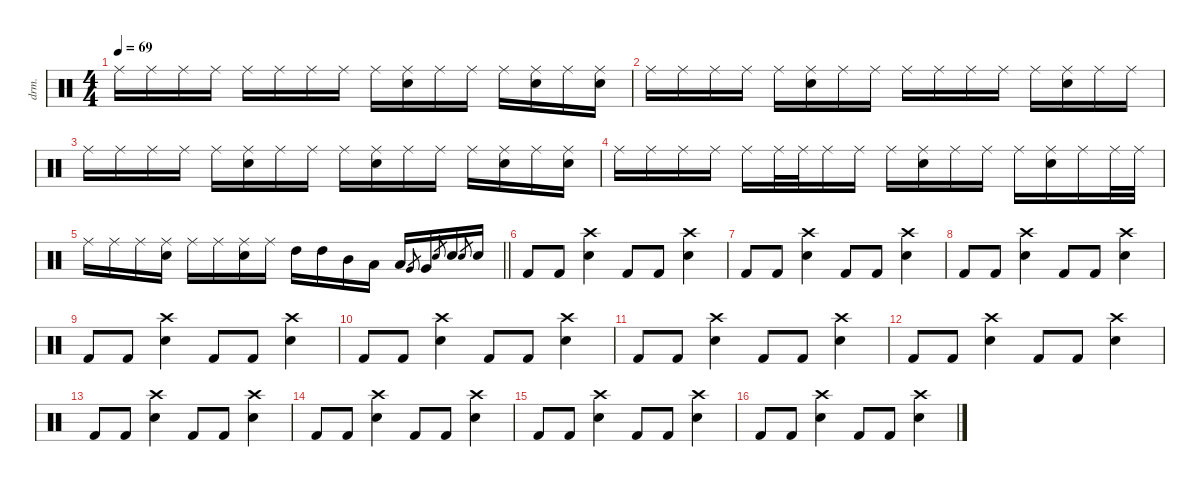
\defaultSystemsLayout 4
\hideDynamics
\bracketExtendMode groupsimilarinstruments
\otherSystemsTrackNameOrientation horizontal
\track ("Drums" "drm.") {defaultSystemsLayout 4 instrument percussion}
\staff {score}
\articulation defaults
\ts (4 4)
\tempo 69
\clef neutral
\ks c "Ride (middle)".16{dy ff beam Down} "Ride (middle)".16{dy mp beam Down} "Ride (middle)".16{dy mf beam Down} "Ride (middle)".16{dy ff beam Down} "Ride (middle)".16{dy mp beam Down} "Ride (middle)".16{beam Down} "Ride (middle)".16{dy f beam Down} "Ride (middle)".16{dy mp beam Down} "Ride (middle)".16{dy f beam Down}
("Snare (hit) 2" "Ride (middle)").16{dy mf beam Down} "Ride (middle)".16{dy mp beam Down} "Ride (middle)".16{dy mf beam Down} "Ride (middle)".16{dy f beam Down} ("Snare (hit) 2" "Ride (middle)").16{dy mf beam Down} "Ride (middle)".16{dy ff beam Down} ("Snare (hit) 2" "Ride (middle)").16{dy mf beam Down} |
"Ride (middle)".16{dy f beam Down} "Ride (middle)".16{dy mp beam Down} "Ride (middle)".16{beam Down} "Ride (middle)".16{dy f beam Down} "Ride (middle)".16{dy mp beam Down} ("Snare (hit) 2" "Ride (middle)").16{dy f beam Down} "Ride (middle)".16{dy ff beam Down} "Ride (middle)".16{dy mf beam Down} "Ride (middle)".16{beam Down} "Ride (middle)".16{dy f beam Down} "Ride (middle)".16{dy mp beam Down} "Ride (middle)".16{dy f beam Down} "Ride (middle)".16{beam Down} ("Snare (hit) 2" "Ride (middle)").16{beam Down} "Ride (middle)".16{beam Down} "Ride (middle)".16{beam Down} |
"Ride (middle)".16{beam Down} "Ride (middle)".16{beam Down} "Ride (middle)".16{beam Down} "Ride (middle)".16{beam Down} "Ride (middle)".16{beam Down} ("Snare (hit) 2" "Ride (middle)").16{dy mf beam Down} "Ride (middle)".16{dy f beam Down} "Ride (middle)".16{beam Down} "Ride (middle)".16{beam Down} ("Snare (hit) 2" "Ride (middle)").16{beam Down} "Ride (middle)".16{dy mf beam Down} "Ride (middle)".16{dy ff beam Down} "Ride (middle)".16{dy mf beam Down} ("Snare (hit) 2" "Ride (middle)").16{beam Down} "Ride (middle)".16{dy ff beam Down} ("Snare (hit) 2" "Ride (middle)").16{dy mf beam Down} |
"Ride (middle)".16{beam Down} "Ride (middle)".16{dy f beam Down} "Ride (middle)".16{beam Down} "Ride (middle)".16{beam Down} "Ride (middle)".16{beam Down} "Ride (middle)".32{beam Down} "Ride (middle)".32{dy ff beam Down} "Ride (middle)".16{dy mp beam Down} "Ride (middle)".16{beam Down} "Ride (middle)".16{dy f beam Down} ("Snare (hit) 2" "Ride (middle)").16{beam Down} "Ride (middle)".16{beam Down} "Ride (middle)".16{dy ff beam Down} "Ride (middle)".16{dy f beam Down} ("Snare (hit) 2" "Ride (middle)").16{beam Down} "Ride (middle)".16{beam Down} "Ride (middle)".32{dy ff beam Down} "Ride (middle)".32{dy f beam Down} |
\barLineRight lightlight "Ride (middle)".16{dy mf beam Down} "Ride (middle)".16{dy f beam Down} "Ride (middle)".16{beam Down}
("Snare (hit) 2" "Ride (middle)").16{beam Down} "Ride (middle)".16{beam Down} "Ride (middle)".16{beam Down} ("Snare (hit) 2" "Ride (middle)").16{dy ff beam Down} "Ride (middle)".16{beam Down} "High Tom (hit)".16{beam Down} "High Tom (hit)".16{beam Down} "Mid Tom (hit)".16{dy fff beam Down} "Low Tom (hit)".16{dy ff beam Down} "Low Tom (hit)".16{beam Up} "Very Low Tom (hit)".8{gr dy f beam Up} "Very Low Tom (hit)".16{dy ff beam Up} "Electric Snare (hit)".8{gr dy mp beam Up} "Snare (hit) 2".16{dy ff beam Up} "Electric Snare (hit)".8{gr dy mp beam Up} "Snare (hit) 2".16{dy ff beam Up} |
"Kick (hit) 2".8{dy fff beam Up} "Kick (hit) 2".8{beam Up} ("Snare (hit) 2" "Crash high (hit)").4{beam Down} "Kick (hit) 2".8{dy f beam Up} "Kick (hit) 2".8{dy fff beam Up} ("Snare (hit) 2" "Crash high (hit)").4{beam Down} |
"Kick (hit) 2".8{beam Up} "Kick (hit) 2".8{beam Up} ("Snare (hit) 2" "Crash high (hit)").4{beam Down} "Kick (hit) 2".8{dy f beam Up} "Kick (hit) 2".8{dy fff beam Up} ("Snare (hit) 2" "Crash high (hit)").4{beam Down} |
"Kick (hit) 2".8{beam Up} "Kick (hit) 2".8{beam Up} ("Snare (hit) 2" "Crash high (hit)").4{beam Down} "Kick (hit) 2".8{dy f beam Up} "Kick (hit) 2".8{dy fff beam Up} ("Snare (hit) 2" "Crash high (hit)").4{beam Down} |
"Kick (hit) 2".8{beam Up} "Kick (hit) 2".8{beam Up} ("Snare (hit) 2" "Crash high (hit)").4{beam Down} "Kick (hit) 2".8{dy f beam Up} "Kick (hit) 2".8{dy fff beam Up} ("Snare (hit) 2" "Crash high (hit)").4{beam Down} |
"Kick (hit) 2".8{beam Up} "Kick (hit) 2".8{beam Up} ("Snare (hit) 2" "Crash high (hit)").4{beam Down} "Kick (hit) 2".8{dy f beam Up} "Kick (hit) 2".8{dy fff beam Up} ("Snare (hit) 2" "Crash high (hit)").4{beam Down} |
"Kick (hit) 2".8{beam Up} "Kick (hit) 2".8{beam Up} ("Snare (hit) 2" "Crash high (hit)").4{beam Down} "Kick (hit) 2".8{dy f beam Up} "Kick (hit) 2".8{dy fff beam Up} ("Snare (hit) 2" "Crash high (hit)").4{beam Down} |
"Kick (hit) 2".8{beam Up} "Kick (hit) 2".8{beam Up} ("Snare (hit) 2" "Crash high (hit)").4{beam Down} "Kick (hit) 2".8{dy f beam Up} "Kick (hit) 2".8{dy fff beam Up} ("Snare (hit) 2" "Crash high (hit)").4{beam Down} |
"Kick (hit) 2".8{beam Up} "Kick (hit) 2".8{beam Up} ("Snare (hit) 2" "Crash high (hit)").4{beam Down} "Kick (hit) 2".8{dy f beam Up} "Kick (hit) 2".8{dy fff beam Up} ("Snare (hit) 2" "Crash high (hit)").4{beam Down} |
"Kick (hit) 2".8{beam Up} "Kick (hit) 2".8{beam Up} ("Snare (hit) 2" "Crash high (hit)").4{beam Down} "Kick (hit) 2".8{dy f beam Up} "Kick (hit) 2".8{dy fff beam Up} ("Snare (hit) 2" "Crash high (hit)").4{beam Down} |
"Kick (hit) 2".8{beam Up} "Kick (hit) 2".8{beam Up} ("Snare (hit) 2" "Crash high (hit)").4{beam Down} "Kick (hit) 2".8{dy f beam Up} "Kick (hit) 2".8{dy fff beam Up} ("Snare (hit) 2" "Crash high (hit)").4{beam Down} |
"Kick (hit) 2".8{beam Up} "Kick (hit) 2".8{beam Up} ("Snare (hit) 2" "Crash high (hit)").4{beam Down} "Kick (hit) 2".8{dy f beam Up} "Kick (hit) 2".8{dy fff beam Up} ("Snare (hit) 2" "Crash high (hit)").4{beam Down}
